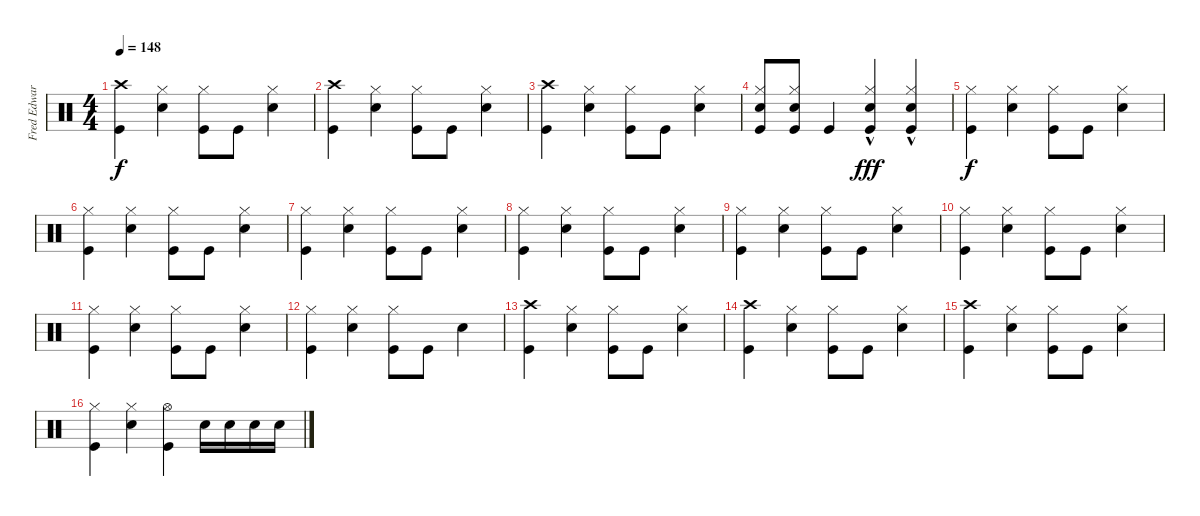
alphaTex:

\track ("Fred Edwards Drums" "Fred Edwar") {instrument percussion}
\staff {score}
\articulation defaults
\ts (4 4)
\tempo 148
\clef neutral
\ks c
("Crash high (hit)" "Kick (hit)").4{dy f} ("Hi-Hat (closed)" "Snare (hit) 2").4 ("Hi-Hat (closed)" "Kick (hit)").8 "Kick (hit)".8 ("Hi-Hat (closed)" "Snare (hit) 2").4 |
("Crash high (hit)" "Kick (hit)").4 ("Hi-Hat (closed)" "Snare (hit) 2").4 ("Hi-Hat (closed)" "Kick (hit)").8 "Kick (hit)".8 ("Hi-Hat (closed)" "Snare (hit) 2").4 |
("Crash high (hit)" "Kick (hit)").4 ("Hi-Hat (closed)" "Snare (hit) 2").4 ("Hi-Hat (closed)" "Kick (hit)").8 "Kick (hit)".8 ("Hi-Hat (closed)" "Snare (hit) 2").4 |
("Hi-Hat (closed)" "Snare (hit) 2" "Kick (hit)").8 ("Hi-Hat (closed)" "Snare (hit) 2" "Kick (hit)").8 "Kick (hit)".4 ("Hi-Hat (closed)"{hac} "Snare (hit) 2" "Kick (hit)").4{dy fff} ("Hi-Hat (closed)"{hac} "Snare (hit) 2" "Kick (hit)").4 |
("Hi-Hat (closed)" "Kick (hit)").4{dy f} ("Hi-Hat (closed)" "Snare (hit) 2").4 ("Hi-Hat (closed)" "Kick (hit)").8 "Kick (hit)".8 ("Hi-Hat (closed)" "Snare (hit) 2").4 |
("Hi-Hat (closed)" "Kick (hit)").4 ("Hi-Hat (closed)" "Snare (hit) 2").4 ("Hi-Hat (closed)" "Kick (hit)").8 "Kick (hit)".8 ("Hi-Hat (closed)" "Snare (hit) 2").4 |
("Hi-Hat (closed)" "Kick (hit)").4 ("Hi-Hat (closed)" "Snare (hit) 2").4 ("Hi-Hat (closed)" "Kick (hit)").8 "Kick (hit)".8 ("Hi-Hat (closed)" "Snare (hit) 2").4 |
("Hi-Hat (closed)" "Kick (hit)").4 ("Hi-Hat (closed)" "Snare (hit) 2").4 ("Hi-Hat (closed)" "Kick (hit)").8 "Kick (hit)".8 ("Hi-Hat (closed)" "Snare (hit) 2").4 |
("Hi-Hat (closed)" "Kick (hit)").4 ("Hi-Hat (closed)" "Snare (hit) 2").4 ("Hi-Hat (closed)" "Kick (hit)").8 "Kick (hit)".8 ("Hi-Hat (closed)" "Snare (hit) 2").4 |
("Hi-Hat (closed)" "Kick (hit)").4 ("Hi-Hat (closed)" "Snare (hit) 2").4 ("Hi-Hat (closed)" "Kick (hit)").8 "Kick (hit)".8 ("Hi-Hat (closed)" "Snare (hit) 2").4 |
("Hi-Hat (closed)" "Kick (hit)").4 ("Hi-Hat (closed)" "Snare (hit) 2").4 ("Hi-Hat (closed)" "Kick (hit)").8 "Kick (hit)".8 ("Hi-Hat (closed)" "Snare (hit) 2").4 |
("Hi-Hat (closed)" "Kick (hit)").4 ("Hi-Hat (closed)" "Snare (hit) 2").4 ("Hi-Hat (closed)" "Kick (hit)").8 "Kick (hit)".8 "Snare (hit) 2".4 |
("Crash high (hit)" "Kick (hit)").4 ("Hi-Hat (closed)" "Snare (hit) 2").4 ("Hi-Hat (closed)" "Kick (hit)").8 "Kick (hit)".8 ("Hi-Hat (closed)" "Snare (hit) 2").4 |
("Crash high (hit)" "Kick (hit)").4 ("Hi-Hat (closed)" "Snare (hit) 2").4 ("Hi-Hat (closed)" "Kick (hit)").8 "Kick (hit)".8 ("Hi-Hat (closed)" "Snare (hit) 2").4 |
("Crash high (hit)" "Kick (hit)").4 ("Hi-Hat (closed)" "Snare (hit) 2").4 ("Hi-Hat (closed)" "Kick (hit)").8 "Kick (hit)".8 ("Hi-Hat (closed)" "Snare (hit) 2").4 |
("Hi-Hat (closed)" "Kick (hit)").4 ("Hi-Hat (closed)" "Snare (hit) 2").4 ("Hi-Hat (open)" "Kick (hit)").4 "Snare (hit) 2".16 "Snare (hit) 2".16 "Snare (hit) 2".16 "Snare (hit) 2".16
